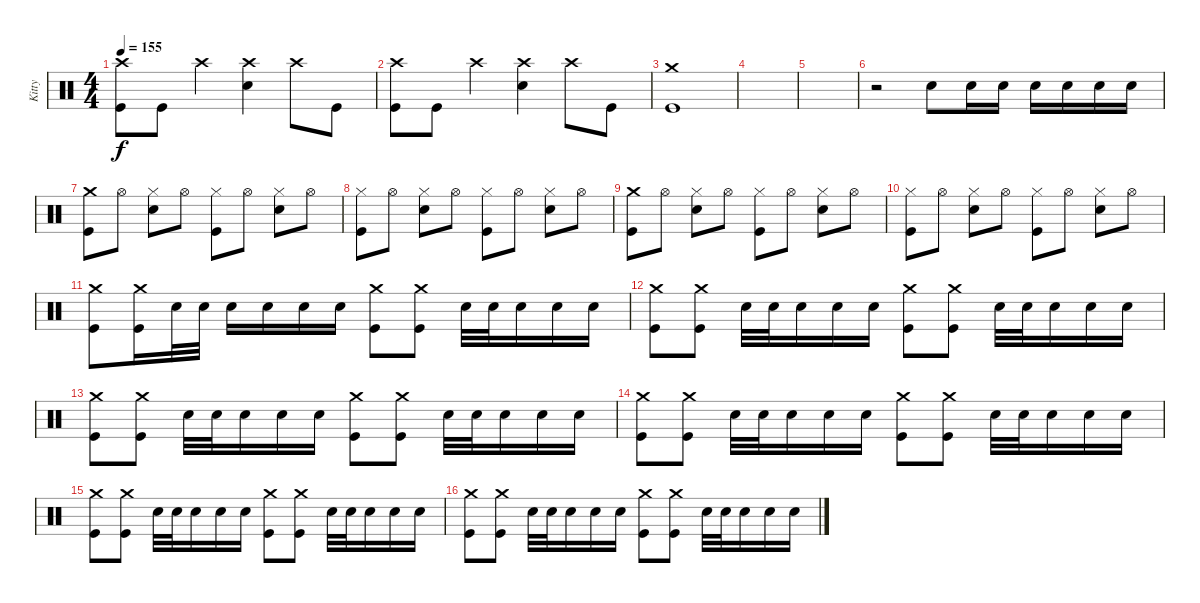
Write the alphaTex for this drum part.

\track ("Kitty" "Kitty") {instrument percussion}
\staff {score}
\articulation defaults
\ts (4 4)
\tempo 155
\clef neutral
\ks c
("Crash high (hit)" "Kick (hit)").8{dy f} "Kick (hit)".8 "Crash high (hit)".4 ("Crash high (hit)" "Electric Snare (hit)").4 "Crash high (hit)".8 "Kick (hit)".8 |
("Crash high (hit)" "Kick (hit)").8 "Kick (hit)".8 "Crash high (hit)".4 ("Crash high (hit)" "Electric Snare (hit)").4 "Crash high (hit)".8 "Kick (hit)".8 |
("Crash medium (hit)" "Kick (hit)").1 |
|
|
r.2 "Electric Snare (hit)".8 "Electric Snare (hit)".16 "Electric Snare (hit)".16 "Electric Snare (hit)".16 "Electric Snare (hit)".16 "Electric Snare (hit)".16 "Electric Snare (hit)".16 |
("Crash medium (hit)" "Kick (hit)").8 "Hi-Hat (open)".8 ("Hi-Hat (closed)" "Electric Snare (hit)").8 "Hi-Hat (open)".8 ("Hi-Hat (closed)" "Kick (hit)").8 "Hi-Hat (open)".8 ("Hi-Hat (closed)" "Electric Snare (hit)").8 "Hi-Hat (open)".8 |
("Hi-Hat (closed)" "Kick (hit)").8 "Hi-Hat (open)".8 ("Hi-Hat (closed)" "Electric Snare (hit)").8 "Hi-Hat (open)".8 ("Hi-Hat (closed)" "Kick (hit)").8 "Hi-Hat (open)".8 ("Hi-Hat (closed)" "Electric Snare (hit)").8 "Hi-Hat (open)".8 |
("Crash medium (hit)" "Kick (hit)").8 "Hi-Hat (open)".8 ("Hi-Hat (closed)" "Electric Snare (hit)").8 "Hi-Hat (open)".8 ("Hi-Hat (closed)" "Kick (hit)").8 "Hi-Hat (open)".8 ("Hi-Hat (closed)" "Electric Snare (hit)").8 "Hi-Hat (open)".8 |
("Hi-Hat (closed)" "Kick (hit)").8 "Hi-Hat (open)".8 ("Hi-Hat (closed)" "Electric Snare (hit)").8 "Hi-Hat (open)".8 ("Hi-Hat (closed)" "Kick (hit)").8 "Hi-Hat (open)".8 ("Hi-Hat (closed)" "Electric Snare (hit)").8 "Hi-Hat (open)".8 |
("Crash medium (hit)" "Kick (hit)").8 ("Crash medium (hit)" "Kick (hit)").16 "Electric Snare (hit)".32 "Electric Snare (hit)".32 "Electric Snare (hit)".16 "Electric Snare (hit)".16 "Electric Snare (hit)".16 "Electric Snare (hit)".16 ("Crash medium (hit)" "Kick (hit)").8 ("Crash medium (hit)" "Kick (hit)").8 "Electric Snare (hit)".32 "Electric Snare (hit)".32 "Electric Snare (hit)".16 "Electric Snare (hit)".16 "Electric Snare (hit)".16 |
("Crash medium (hit)" "Kick (hit)").8 ("Crash medium (hit)" "Kick (hit)").8 "Electric Snare (hit)".32 "Electric Snare (hit)".32 "Electric Snare (hit)".16 "Electric Snare (hit)".16 "Electric Snare (hit)".16 ("Crash medium (hit)" "Kick (hit)").8 ("Crash medium (hit)" "Kick (hit)").8 "Electric Snare (hit)".32 "Electric Snare (hit)".32 "Electric Snare (hit)".16 "Electric Snare (hit)".16 "Electric Snare (hit)".16 |
("Crash medium (hit)" "Kick (hit)").8 ("Crash medium (hit)" "Kick (hit)").8 "Electric Snare (hit)".32 "Electric Snare (hit)".32 "Electric Snare (hit)".16 "Electric Snare (hit)".16 "Electric Snare (hit)".16 ("Crash medium (hit)" "Kick (hit)").8 ("Crash medium (hit)" "Kick (hit)").8 "Electric Snare (hit)".32 "Electric Snare (hit)".32 "Electric Snare (hit)".16 "Electric Snare (hit)".16 "Electric Snare (hit)".16 |
("Crash medium (hit)" "Kick (hit)").8 ("Crash medium (hit)" "Kick (hit)").8 "Electric Snare (hit)".32 "Electric Snare (hit)".32 "Electric Snare (hit)".16 "Electric Snare (hit)".16 "Electric Snare (hit)".16 ("Crash medium (hit)" "Kick (hit)").8 ("Crash medium (hit)" "Kick (hit)").8 "Electric Snare (hit)".32 "Electric Snare (hit)".32 "Electric Snare (hit)".16 "Electric Snare (hit)".16 "Electric Snare (hit)".16 |
("Crash medium (hit)" "Kick (hit)").8 ("Crash medium (hit)" "Kick (hit)").8 "Electric Snare (hit)".32 "Electric Snare (hit)".32 "Electric Snare (hit)".16 "Electric Snare (hit)".16 "Electric Snare (hit)".16 ("Crash medium (hit)" "Kick (hit)").8 ("Crash medium (hit)" "Kick (hit)").8 "Electric Snare (hit)".32 "Electric Snare (hit)".32 "Electric Snare (hit)".16 "Electric Snare (hit)".16 "Electric Snare (hit)".16 |
("Crash medium (hit)" "Kick (hit)").8 ("Crash medium (hit)" "Kick (hit)").8 "Electric Snare (hit)".32 "Electric Snare (hit)".32 "Electric Snare (hit)".16 "Electric Snare (hit)".16 "Electric Snare (hit)".16 ("Crash medium (hit)" "Kick (hit)").8 ("Crash medium (hit)" "Kick (hit)").8 "Electric Snare (hit)".32 "Electric Snare (hit)".32 "Electric Snare (hit)".16 "Electric Snare (hit)".16 "Electric Snare (hit)".16
